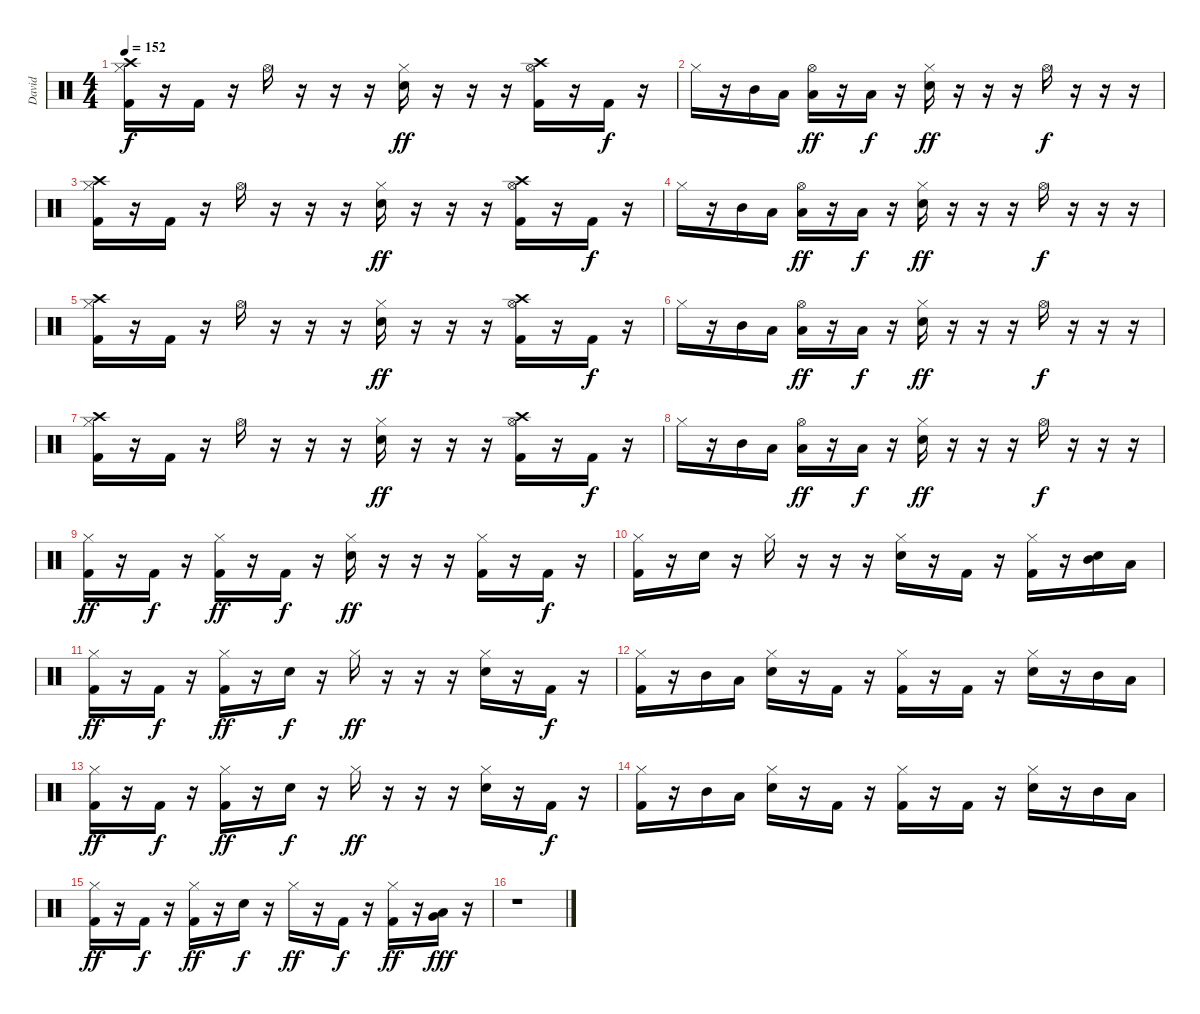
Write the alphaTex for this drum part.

\track ("David" "David") {instrument percussion}
\staff {score}
\articulation defaults
\ts (4 4)
\tempo 152
\clef neutral
\ks c
("Crash high (hit)" "Hi-Hat (closed)" "Kick (hit) 2").16{dy f} r.16 "Kick (hit) 2".16 r.16 "Hi-Hat (open)".16 r.16 r.16 r.16 ("Hi-Hat (closed)" "Electric Snare (hit)").16{dy ff} r.16 r.16 r.16 ("Crash high (hit)" "Hi-Hat (open)" "Kick (hit) 2").16 r.16 "Kick (hit) 2".16{dy f} r.16 |
"Hi-Hat (closed)".16 r.16 "Mid Tom (hit)".16 "Low Floor Tom (hit)".16 ("Hi-Hat (open)" "Low Floor Tom (hit)").16{dy ff} r.16 "Low Floor Tom (hit)".16{dy f} r.16 ("Hi-Hat (closed)" "Electric Snare (hit)").16{dy ff} r.16 r.16 r.16 "Hi-Hat (open)".16{dy f} r.16 r.16 r.16 |
("Crash high (hit)" "Hi-Hat (closed)" "Kick (hit) 2").16 r.16 "Kick (hit) 2".16 r.16 "Hi-Hat (open)".16 r.16 r.16 r.16 ("Hi-Hat (closed)" "Electric Snare (hit)").16{dy ff} r.16 r.16 r.16 ("Crash high (hit)" "Hi-Hat (open)" "Kick (hit) 2").16 r.16 "Kick (hit) 2".16{dy f} r.16 |
"Hi-Hat (closed)".16 r.16 "Mid Tom (hit)".16 "Low Floor Tom (hit)".16 ("Hi-Hat (open)" "Low Floor Tom (hit)").16{dy ff} r.16 "Low Floor Tom (hit)".16{dy f} r.16 ("Hi-Hat (closed)" "Electric Snare (hit)").16{dy ff} r.16 r.16 r.16 "Hi-Hat (open)".16{dy f} r.16 r.16 r.16 |
("Crash high (hit)" "Hi-Hat (closed)" "Kick (hit) 2").16 r.16 "Kick (hit) 2".16 r.16 "Hi-Hat (open)".16 r.16 r.16 r.16 ("Hi-Hat (closed)" "Electric Snare (hit)").16{dy ff} r.16 r.16 r.16 ("Crash high (hit)" "Hi-Hat (open)" "Kick (hit) 2").16 r.16 "Kick (hit) 2".16{dy f} r.16 |
"Hi-Hat (closed)".16 r.16 "Mid Tom (hit)".16 "Low Floor Tom (hit)".16 ("Hi-Hat (open)" "Low Floor Tom (hit)").16{dy ff} r.16 "Low Floor Tom (hit)".16{dy f} r.16 ("Hi-Hat (closed)" "Electric Snare (hit)").16{dy ff} r.16 r.16 r.16 "Hi-Hat (open)".16{dy f} r.16 r.16 r.16 |
("Crash high (hit)" "Hi-Hat (closed)" "Kick (hit) 2").16 r.16 "Kick (hit) 2".16 r.16 "Hi-Hat (open)".16 r.16 r.16 r.16 ("Hi-Hat (closed)" "Electric Snare (hit)").16{dy ff} r.16 r.16 r.16 ("Crash high (hit)" "Hi-Hat (open)" "Kick (hit) 2").16 r.16 "Kick (hit) 2".16{dy f} r.16 |
"Hi-Hat (closed)".16 r.16 "Mid Tom (hit)".16 "Low Floor Tom (hit)".16 ("Hi-Hat (open)" "Low Floor Tom (hit)").16{dy ff} r.16 "Low Floor Tom (hit)".16{dy f} r.16 ("Hi-Hat (closed)" "Electric Snare (hit)").16{dy ff} r.16 r.16 r.16 "Hi-Hat (open)".16{dy f} r.16 r.16 r.16 |
("Hi-Hat (closed)" "Kick (hit) 2").16{dy ff} r.16 "Kick (hit) 2".16{dy f} r.16 ("Hi-Hat (closed)" "Kick (hit) 2").16{dy ff} r.16 "Kick (hit) 2".16{dy f} r.16 ("Hi-Hat (closed)" "Electric Snare (hit)").16{dy ff} r.16 r.16 r.16 ("Hi-Hat (closed)" "Kick (hit) 2").16 r.16 "Kick (hit) 2".16{dy f} r.16 |
("Hi-Hat (closed)" "Kick (hit) 2").16 r.16 "Electric Snare (hit)".16 r.16 "Hi-Hat (closed)".16 r.16 r.16 r.16 ("Hi-Hat (closed)" "Electric Snare (hit)").16 r.16 "Kick (hit) 2".16 r.16 ("Hi-Hat (closed)" "Kick (hit) 2").16 r.16 ("Mid Tom (hit)" "Electric Snare (hit)").16 "Low Tom (hit)".16 |
("Hi-Hat (closed)" "Kick (hit) 2").16{dy ff} r.16 "Kick (hit) 2".16{dy f} r.16 ("Hi-Hat (closed)" "Kick (hit) 2").16{dy ff} r.16 "Electric Snare (hit)".16{dy f} r.16 "Hi-Hat (closed)".16{dy ff} r.16 r.16 r.16 ("Hi-Hat (closed)" "Electric Snare (hit)").16 r.16 "Kick (hit) 2".16{dy f} r.16 |
("Hi-Hat (closed)" "Kick (hit) 2").16 r.16 "Mid Tom (hit)".16 "Low Tom (hit)".16 ("Hi-Hat (closed)" "Electric Snare (hit)").16 r.16 "Kick (hit) 2".16 r.16 ("Hi-Hat (closed)" "Kick (hit) 2").16 r.16 "Kick (hit) 2".16 r.16 ("Hi-Hat (closed)" "Electric Snare (hit)").16 r.16 "Mid Tom (hit)".16 "Low Tom (hit)".16 |
("Hi-Hat (closed)" "Kick (hit) 2").16{dy ff} r.16 "Kick (hit) 2".16{dy f} r.16 ("Hi-Hat (closed)" "Kick (hit) 2").16{dy ff} r.16 "Electric Snare (hit)".16{dy f} r.16 "Hi-Hat (closed)".16{dy ff} r.16 r.16 r.16 ("Hi-Hat (closed)" "Electric Snare (hit)").16 r.16 "Kick (hit) 2".16{dy f} r.16 |
("Hi-Hat (closed)" "Kick (hit) 2").16 r.16 "Mid Tom (hit)".16 "Low Tom (hit)".16 ("Hi-Hat (closed)" "Electric Snare (hit)").16 r.16 "Kick (hit) 2".16 r.16 ("Hi-Hat (closed)" "Kick (hit) 2").16 r.16 "Kick (hit) 2".16 r.16 ("Hi-Hat (closed)" "Electric Snare (hit)").16 r.16 "Mid Tom (hit)".16 "Low Tom (hit)".16 |
("Hi-Hat (closed)" "Kick (hit) 2").16{dy ff} r.16 "Kick (hit) 2".16{dy f} r.16 ("Hi-Hat (closed)" "Kick (hit) 2").16{dy ff} r.16 "Electric Snare (hit)".16{dy f} r.16 "Hi-Hat (closed)".16{dy ff} r.16 "Kick (hit) 2".16{dy f} r.16 ("Hi-Hat (closed)" "Kick (hit) 2").16{dy ff} r.16 ("Low Floor Tom (hit)" "Very Low Tom (hit)").16{dy fff} r.16 |
r.1
